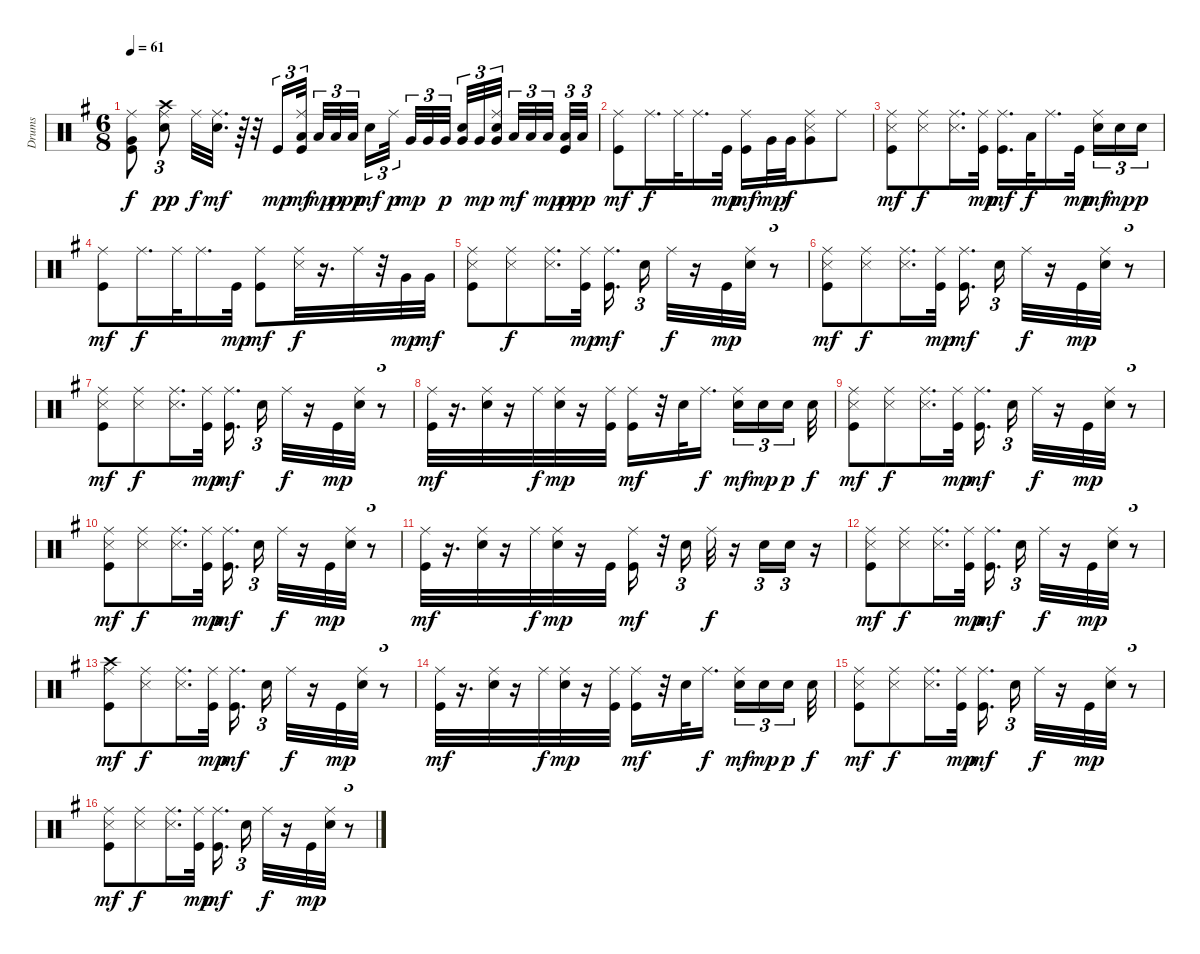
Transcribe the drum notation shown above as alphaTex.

\track ("Drums" "Drums") {instrument percussion}
\staff {score}
\articulation defaults
\ts (6 8)
\tempo 61
\clef neutral
\ks g
("Kick (hit)" "Very Low Tom (hit)" "Ride (middle)").8{dy f} ("Snare (hit) 2" "Crash high (hit)" "Ride (middle)").8{tu (3 2) dy pp} "Ride (middle)".32{dy f} ("Snare (hit) 2" "Ride (middle)").32{d dy mf} r.64 r.32 "Kick (hit)".16{tu (3 2) dy mp} ("Kick (hit)" "Low Tom (hit)" "Ride (middle)").32{tu (3 2) dy mf beam splitsecondary} "Low Tom (hit)".32{tu (3 2) dy mp} "Low Tom (hit)".32{tu (3 2) dy p} "Low Tom (hit)".32{tu (3 2) dy pp beam splitsecondary} "Snare (hit) 2".16{tu (3 2) dy mf} "Ride (middle)".32{tu (3 2) dy p beam splitsecondary} "Very Low Tom (hit)".32{tu (3 2) dy mp} "Very Low Tom (hit)".32{tu (3 2)} "Very Low Tom (hit)".32{tu (3 2) dy p beam splitsecondary} ("Snare (hit) 2" "Very Low Tom (hit)").32{tu (3 2)} "Very Low Tom (hit)".32{tu (3 2) dy mp} ("Snare (hit) 2" "Very Low Tom (hit)" "Ride (middle)").32{tu (3 2) beam splitsecondary} "Low Floor Tom (hit)".32{tu (3 2) dy mf} "Low Floor Tom (hit)".32{tu (3 2)} "Low Floor Tom (hit)".32{tu (3 2) dy mp beam splitsecondary} ("Kick (hit)" "Low Floor Tom (hit)").32{tu (3 2) dy p} "Low Floor Tom (hit)".32{tu (3 2) dy pp} |
("Kick (hit)" "Ride (middle)").8{dy mf} "Ride (middle)".16{d dy f} "Ride (middle)".32 "Ride (middle)".16{d} "Kick (hit)".32{dy mp} ("Kick (hit)" "Ride (middle)").16{dy mf} "Very Low Tom (hit)".32{dy mp} "Very Low Tom (hit)".32{dy f} ("Snare (side stick) 3" "Very Low Tom (hit)" "Ride (middle)").8 "Ride (middle)".8 |
("Kick (hit)" "Snare (side stick) 3" "Ride (middle)").8{dy mf} ("Snare (side stick) 3" "Ride (middle)").8{dy f} ("Snare (side stick) 3" "Ride (middle)").16{d} ("Kick (hit)" "Ride (middle)").32{dy mp} ("Kick (hit)" "Ride (middle)").16{d dy mf} "Low Tom (hit)".32{dy f} "Ride (middle)".16{d} "Kick (hit)".32{dy mp beam splitsecondary} ("Electric Snare (hit)" "Ride (middle)").16{tu (3 2) dy mf} "Electric Snare (hit)".16{tu (3 2) dy mp} "Electric Snare (hit)".16{tu (3 2) dy p} |
("Kick (hit)" "Ride (middle)").8{dy mf} "Ride (middle)".16{d dy f} "Ride (middle)".32 "Ride (middle)".16{d} "Kick (hit)".32{dy mp} ("Kick (hit)" "Ride (middle)").8{dy mf} ("Snare (side stick) 3" "Ride (middle)").32{dy f} r.16{d} "Ride (middle)".32 r.32 "Very Low Tom (hit)".32{dy mp} "Very Low Tom (hit)".32{dy mf} |
("Kick (hit)" "Snare (side stick) 3" "Ride (middle)").8 ("Snare (side stick) 3" "Ride (middle)").8{dy f} ("Snare (side stick) 3" "Ride (middle)").16{d} ("Kick (hit)" "Ride (middle)").32{dy mp} ("Kick (hit)" "Ride (middle)").16{d dy mf beam splitsecondary} "Snare (hit) 2".16{tu (3 2)} "Ride (middle)".32{dy f} r.16 "Kick (hit)".32{dy mp} ("Snare (hit) 2" "Ride (middle)").32 r.8{tu (3 2)} |
("Kick (hit)" "Snare (side stick) 3" "Ride (middle)").8{dy mf} ("Snare (side stick) 3" "Ride (middle)").8{dy f} ("Snare (side stick) 3" "Ride (middle)").16{d} ("Kick (hit)" "Ride (middle)").32{dy mp} ("Kick (hit)" "Ride (middle)").16{d dy mf beam splitsecondary} "Snare (hit) 2".16{tu (3 2)} "Ride (middle)".32{dy f} r.16 "Kick (hit)".32{dy mp} ("Snare (hit) 2" "Ride (middle)").32 r.8{tu (3 2)} |
("Kick (hit)" "Snare (side stick) 3" "Ride (middle)").8{dy mf} ("Snare (side stick) 3" "Ride (middle)").8{dy f} ("Snare (side stick) 3" "Ride (middle)").16{d} ("Kick (hit)" "Ride (middle)").32{dy mp} ("Kick (hit)" "Ride (middle)").16{d dy mf beam splitsecondary} "Snare (hit) 2".16{tu (3 2)} "Ride (middle)".32{dy f} r.16 "Kick (hit)".32{dy mp} ("Snare (hit) 2" "Ride (middle)").32 r.8{tu (3 2)} |
("Kick (hit)" "Ride (middle)").32{dy mf} r.16{d} ("Snare (hit) 2" "Ride (middle)").32 r.16 "Ride (middle)".32{dy f} ("Snare (hit) 2" "Ride (middle)").32{dy mp} r.16 ("Kick (hit)" "Ride (middle)").32 ("Kick (hit)" "Ride (middle)").16{dy mf} r.32 "Snare (hit) 2".32 "Ride (middle)".16{d dy f beam splitsecondary} ("Electric Snare (hit)" "Ride (middle)").16{tu (3 2) dy mf} "Electric Snare (hit)".16{tu (3 2) dy mp} "Electric Snare (hit)".16{tu (3 2) dy p beam splitsecondary} "Electric Snare (hit)".32{dy f} |
("Kick (hit)" "Snare (side stick) 3" "Ride (middle)").8{dy mf} ("Snare (side stick) 3" "Ride (middle)").8{dy f} ("Snare (side stick) 3" "Ride (middle)").16{d} ("Kick (hit)" "Ride (middle)").32{dy mp} ("Kick (hit)" "Ride (middle)").16{d dy mf beam splitsecondary} "Snare (hit) 2".16{tu (3 2)} "Ride (middle)".32{dy f} r.16 "Kick (hit)".32{dy mp} ("Snare (hit) 2" "Ride (middle)").32 r.8{tu (3 2)} |
("Kick (hit)" "Snare (side stick) 3" "Ride (middle)").8{dy mf} ("Snare (side stick) 3" "Ride (middle)").8{dy f} ("Snare (side stick) 3" "Ride (middle)").16{d} ("Kick (hit)" "Ride (middle)").32{dy mp} ("Kick (hit)" "Ride (middle)").16{d dy mf beam splitsecondary} "Snare (hit) 2".16{tu (3 2)} "Ride (middle)".32{dy f} r.16 "Kick (hit)".32{dy mp} ("Snare (hit) 2" "Ride (middle)").32 r.8{tu (3 2)} |
("Kick (hit)" "Ride (middle)").32{dy mf} r.16{d} ("Snare (hit) 2" "Ride (middle)").32 r.16 "Ride (middle)".32{dy f} ("Snare (hit) 2" "Ride (middle)").32{dy mp} r.16 "Kick (hit)".32 ("Kick (hit)" "Ride (middle)").16{dy mf} r.32 "Snare (hit) 2".16{tu (3 2)} "Ride (middle)".32{dy f} r.16 "Electric Snare (hit)".16{tu (3 2)} "Electric Snare (hit)".16{tu (3 2)} r.16 |
("Kick (hit)" "Snare (side stick) 3" "Ride (middle)").8{dy mf} ("Snare (side stick) 3" "Ride (middle)").8{dy f} ("Snare (side stick) 3" "Ride (middle)").16{d} ("Kick (hit)" "Ride (middle)").32{dy mp} ("Kick (hit)" "Ride (middle)").16{d dy mf beam splitsecondary} "Snare (hit) 2".16{tu (3 2)} "Ride (middle)".32{dy f} r.16 "Kick (hit)".32{dy mp} ("Snare (hit) 2" "Ride (middle)").32 r.8{tu (3 2)} |
("Kick (hit)" "Crash high (hit)" "Ride (middle)").8{dy mf} ("Snare (side stick) 3" "Ride (middle)").8{dy f} ("Snare (side stick) 3" "Ride (middle)").16{d} ("Kick (hit)" "Ride (middle)").32{dy mp} ("Kick (hit)" "Ride (middle)").16{d dy mf beam splitsecondary} "Snare (hit) 2".16{tu (3 2)} "Ride (middle)".32{dy f} r.16 "Kick (hit)".32{dy mp} ("Snare (hit) 2" "Ride (middle)").32 r.8{tu (3 2)} |
("Kick (hit)" "Ride (middle)").32{dy mf} r.16{d} ("Snare (hit) 2" "Ride (middle)").32 r.16 "Ride (middle)".32{dy f} ("Snare (hit) 2" "Ride (middle)").32{dy mp} r.16 ("Kick (hit)" "Ride (middle)").32 ("Kick (hit)" "Ride (middle)").16{dy mf} r.32 "Snare (hit) 2".32 "Ride (middle)".16{d dy f beam splitsecondary} ("Electric Snare (hit)" "Ride (middle)").16{tu (3 2) dy mf} "Electric Snare (hit)".16{tu (3 2) dy mp} "Electric Snare (hit)".16{tu (3 2) dy p beam splitsecondary} "Electric Snare (hit)".32{dy f} |
("Kick (hit)" "Snare (side stick) 3" "Ride (middle)").8{dy mf} ("Snare (side stick) 3" "Ride (middle)").8{dy f} ("Snare (side stick) 3" "Ride (middle)").16{d} ("Kick (hit)" "Ride (middle)").32{dy mp} ("Kick (hit)" "Ride (middle)").16{d dy mf beam splitsecondary} "Snare (hit) 2".16{tu (3 2)} "Ride (middle)".32{dy f} r.16 "Kick (hit)".32{dy mp} ("Snare (hit) 2" "Ride (middle)").32 r.8{tu (3 2)} |
("Kick (hit)" "Snare (side stick) 3" "Ride (middle)").8{dy mf} ("Snare (side stick) 3" "Ride (middle)").8{dy f} ("Snare (side stick) 3" "Ride (middle)").16{d} ("Kick (hit)" "Ride (middle)").32{dy mp} ("Kick (hit)" "Ride (middle)").16{d dy mf beam splitsecondary} "Snare (hit) 2".16{tu (3 2)} "Ride (middle)".32{dy f} r.16 "Kick (hit)".32{dy mp} ("Snare (hit) 2" "Ride (middle)").32 r.8{tu (3 2)}
